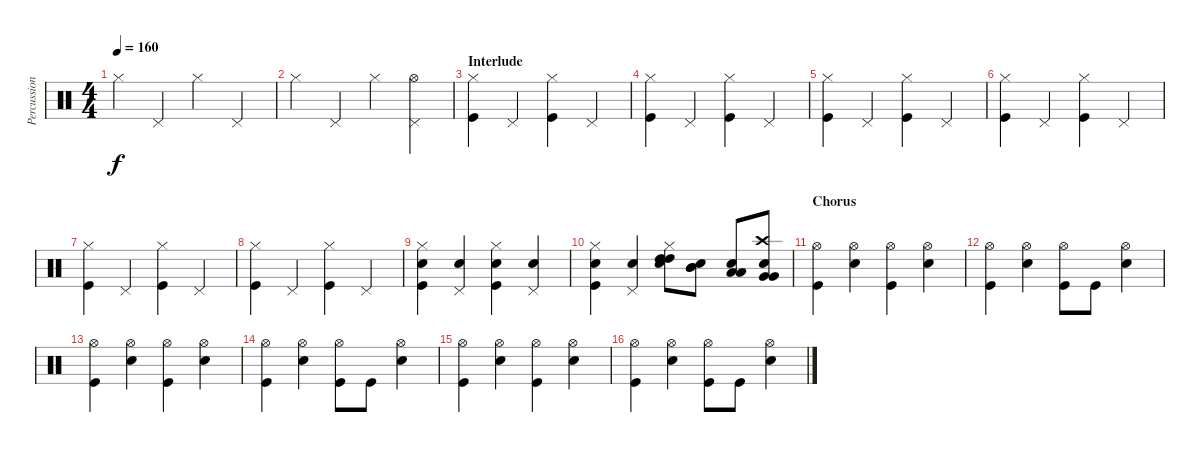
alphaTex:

\track ("Percussion" "Percussion") {instrument percussion}
\staff {score}
\articulation defaults
\ts (4 4)
\tempo 160
\clef neutral
\ks c "Hi-Hat (closed)".4{dy f} "Pedal Hi-Hat (hit)".4 "Hi-Hat (closed)".4 "Pedal Hi-Hat (hit)".4
|
"Hi-Hat (closed)".4 "Pedal Hi-Hat (hit)".4 "Hi-Hat (closed)".4 ("Pedal Hi-Hat (hit)" "Hi-Hat (open)").4 |
\section ("" "Interlude")
("Hi-Hat (closed)" "Kick (hit)").4 "Pedal Hi-Hat (hit)".4 ("Hi-Hat (closed)" "Kick (hit)").4 "Pedal Hi-Hat (hit)".4 |
("Hi-Hat (closed)" "Kick (hit)").4 "Pedal Hi-Hat (hit)".4 ("Hi-Hat (closed)" "Kick (hit)").4 "Pedal Hi-Hat (hit)".4 |
("Hi-Hat (closed)" "Kick (hit)").4 "Pedal Hi-Hat (hit)".4 ("Hi-Hat (closed)" "Kick (hit)").4 "Pedal Hi-Hat (hit)".4 |
("Hi-Hat (closed)" "Kick (hit)").4 "Pedal Hi-Hat (hit)".4 ("Hi-Hat (closed)" "Kick (hit)").4 "Pedal Hi-Hat (hit)".4 |
("Hi-Hat (closed)" "Kick (hit)").4 "Pedal Hi-Hat (hit)".4 ("Hi-Hat (closed)" "Kick (hit)").4 "Pedal Hi-Hat (hit)".4 |
("Hi-Hat (closed)" "Kick (hit)").4 "Pedal Hi-Hat (hit)".4 ("Hi-Hat (closed)" "Kick (hit)").4 "Pedal Hi-Hat (hit)".4 |
("Hi-Hat (closed)" "Electric Snare (hit)" "Kick (hit)").4 ("Pedal Hi-Hat (hit)" "Electric Snare (hit)").4 ("Hi-Hat (closed)" "Electric Snare (hit)" "Kick (hit)").4 ("Pedal Hi-Hat (hit)" "Electric Snare (hit)").4 |
("Hi-Hat (closed)" "Electric Snare (hit)" "Kick (hit)").4 ("Pedal Hi-Hat (hit)" "Electric Snare (hit)").4 ("Hi-Hat (closed)" "Electric Snare (hit)" "High Tom (hit)" "High Tom (hit)").8 ("Electric Snare (hit)" "Mid Tom (hit)" "Mid Tom (hit)").8 ("Electric Snare (hit)" "Low Tom (hit)" "Low Tom (hit)").8 ("Crash high (hit)" "Electric Snare (hit)" "Very Low Tom (hit)" "Very Low Tom (hit)").8 |
\section ("" "Chorus")
("Hi-Hat (open)" "Kick (hit)").4 ("Hi-Hat (open)" "Electric Snare (hit)").4 ("Hi-Hat (open)" "Kick (hit)").4 ("Hi-Hat (open)" "Electric Snare (hit)").4 |
("Hi-Hat (open)" "Kick (hit)").4 ("Hi-Hat (open)" "Electric Snare (hit)").4 ("Hi-Hat (open)" "Kick (hit)").8 "Kick (hit)".8 ("Hi-Hat (open)" "Electric Snare (hit)").4 |
("Hi-Hat (open)" "Kick (hit)").4 ("Hi-Hat (open)" "Electric Snare (hit)").4 ("Hi-Hat (open)" "Kick (hit)").4 ("Hi-Hat (open)" "Electric Snare (hit)").4 |
("Hi-Hat (open)" "Kick (hit)").4 ("Hi-Hat (open)" "Electric Snare (hit)").4 ("Hi-Hat (open)" "Kick (hit)").8 "Kick (hit)".8 ("Hi-Hat (open)" "Electric Snare (hit)").4 |
("Hi-Hat (open)" "Kick (hit)").4 ("Hi-Hat (open)" "Electric Snare (hit)").4 ("Hi-Hat (open)" "Kick (hit)").4 ("Hi-Hat (open)" "Electric Snare (hit)").4 |
("Hi-Hat (open)" "Kick (hit)").4 ("Hi-Hat (open)" "Electric Snare (hit)").4 ("Hi-Hat (open)" "Kick (hit)").8 "Kick (hit)".8 ("Hi-Hat (open)" "Electric Snare (hit)").4
